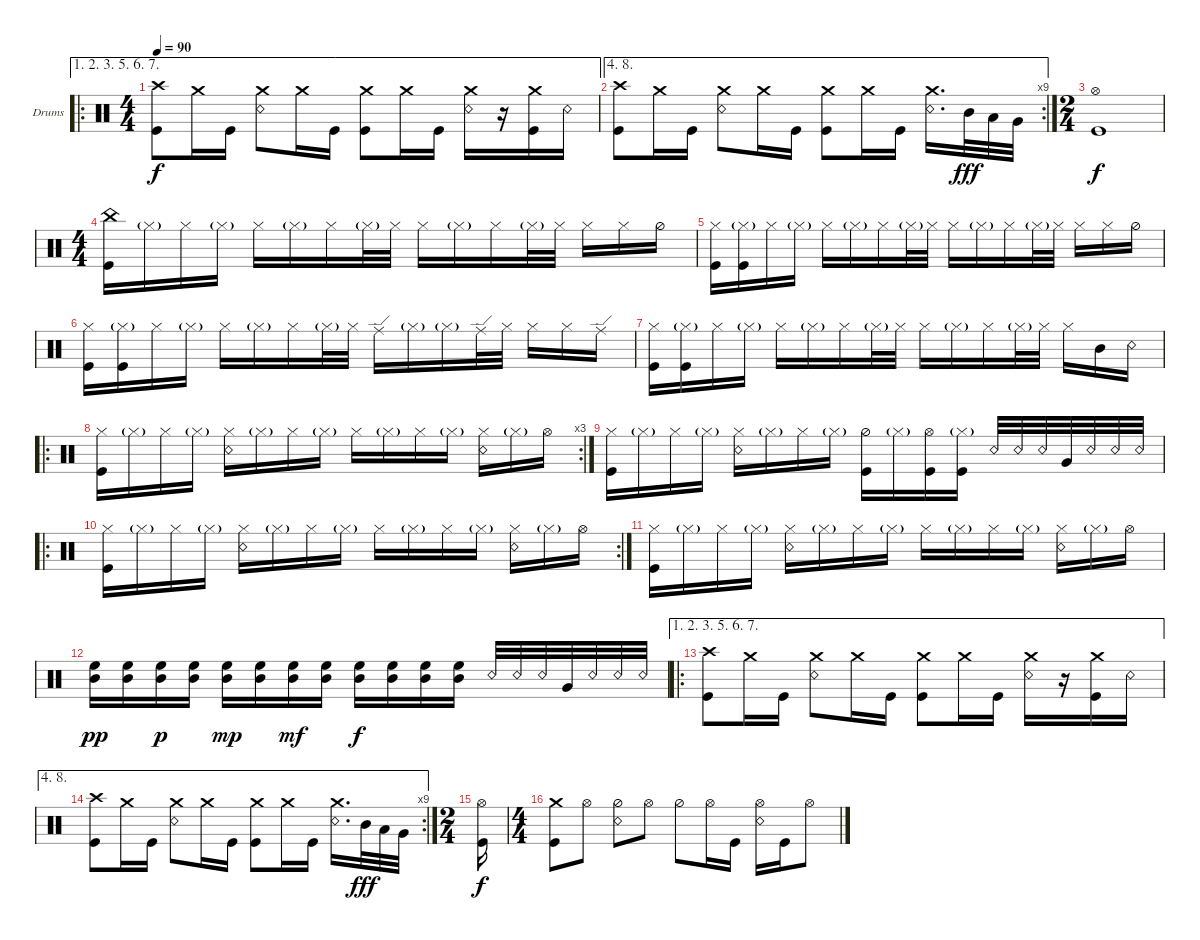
\bracketExtendMode groupsimilarinstruments
\firstSystemTrackNameOrientation horizontal
\otherSystemsTrackNameOrientation horizontal
\track ("Drumkit" "Drums") {instrument percussion}
\staff {score}
\articulation defaults
\ae (1 2 3 5 6 7)
\ro
\ts (4 4)
\tempo 90
\clef neutral
\scale
0.320513
\ks c
("Kick (hit)" "Crash high (hit)").8{dy f} "Crash medium (hit)".16 "Kick (hit)".16 ("Crash medium (hit)" "Snare (rim shot)").8 "Crash medium (hit)".16 "Kick (hit)".16 ("Kick (hit)" "Crash medium (hit)").8 "Crash medium (hit)".16 "Kick (hit)".16 ("Snare (rim shot)" "Crash medium (hit)").16 r.16 ("Crash medium (hit)" "Kick (hit)").16 "Snare (rim shot)".16 |
\ae (4 8)
\rc 9
("Kick (hit)" "Crash high (hit)").8 "Crash medium (hit)".16 "Kick (hit)".16 ("Crash medium (hit)" "Snare (rim shot)").8 "Crash medium (hit)".16 "Kick (hit)".16 ("Kick (hit)" "Crash medium (hit)").8 "Crash medium (hit)".16 "Kick (hit)".16 ("Snare (rim shot)" "Crash medium (hit)").16{d} "Mid Tom (hit)".32{dy fff} "Low Tom (hit)".32 "Very Low Tom (hit)".32 |
\ts (2 4)
\scale
0.435897 ("Kick (hit)" "Hi-Hat (open)").1{dy f} |
\ts (4 4)
\scale
0.472222 ("China (hit)" "Kick (hit)").16 "Hi-Hat (closed)"{g}.16 "Hi-Hat (closed)".16 "Hi-Hat (closed)"{g}.16 "Hi-Hat (closed)".16 "Hi-Hat (closed)"{g}.16 "Hi-Hat (closed)".16 "Hi-Hat (closed)"{g}.32 "Hi-Hat (closed)".32 "Hi-Hat (closed)".16 "Hi-Hat (closed)"{g}.16 "Hi-Hat (closed)".16 "Hi-Hat (closed)"{g}.32 "Hi-Hat (closed)".32 "Hi-Hat (closed)".16 "Hi-Hat (closed)".16 "Hi-Hat (half)".16 |
\scale
0.263889 ("Kick (hit)" "Hi-Hat (closed)").16 ("Hi-Hat (closed)"{g} "Kick (hit)").16 "Hi-Hat (closed)".16 "Hi-Hat (closed)"{g}.16 "Hi-Hat (closed)".16 "Hi-Hat (closed)"{g}.16 "Hi-Hat (closed)".16 "Hi-Hat (closed)"{g}.32 "Hi-Hat (closed)".32 "Hi-Hat (closed)".16 "Hi-Hat (closed)"{g}.16 "Hi-Hat (closed)".16 "Hi-Hat (closed)"{g}.32 "Hi-Hat (closed)".32 "Hi-Hat (closed)".16 "Hi-Hat (closed)".16 "Hi-Hat (half)".16 |
\scale
0.263889 ("Kick (hit)" "Hi-Hat (closed)").16 ("Hi-Hat (closed)"{g} "Kick (hit)").16 "Hi-Hat (closed)".16 "Hi-Hat (closed)"{g}.16 "Hi-Hat (closed)".16 "Hi-Hat (closed)"{g}.16 "Hi-Hat (closed)".16 "Hi-Hat (closed)"{g}.32 "Hi-Hat (closed)".32 "Ride (edge)".16 "Hi-Hat (closed)"{g}.16 "Hi-Hat (closed)"{g}.16 "Ride (edge)".32 "Hi-Hat (closed)".32 "Hi-Hat (closed)".16 "Hi-Hat (closed)".16 "Ride (edge)".16 |
\scale
0.301587 ("Kick (hit)" "Hi-Hat (closed)").16 ("Hi-Hat (closed)"{g} "Kick (hit)").16 "Hi-Hat (closed)".16 "Hi-Hat (closed)"{g}.16 "Hi-Hat (closed)".16 "Hi-Hat (closed)"{g}.16 "Hi-Hat (closed)".16 "Hi-Hat (closed)"{g}.32 "Hi-Hat (closed)".32 "Hi-Hat (closed)".16 "Hi-Hat (closed)"{g}.16 "Hi-Hat (closed)".16 "Hi-Hat (closed)"{g}.32 "Hi-Hat (closed)".32 "Hi-Hat (closed)".16 "Mid Tom (hit)".16 "Snare (rim shot)".16 |
\ro
\rc 3
\scale
0.396825 ("Kick (hit)" "Hi-Hat (closed)").16 "Hi-Hat (closed)"{g}.16 "Hi-Hat (closed)".16 "Hi-Hat (closed)"{g}.16 ("Hi-Hat (closed)" "Snare (rim shot)").16 "Hi-Hat (closed)"{g}.16 "Hi-Hat (closed)".16 "Hi-Hat (closed)"{g}.16 "Hi-Hat (closed)".16 "Hi-Hat (closed)"{g}.16 "Hi-Hat (closed)".16 "Hi-Hat (closed)"{g}.16 ("Hi-Hat (closed)" "Snare (rim shot)").16 "Hi-Hat (closed)"{g}.16 "Hi-Hat (open)".16 |
("Kick (hit)" "Hi-Hat (closed)").16 "Hi-Hat (closed)"{g}.16 "Hi-Hat (closed)".16 "Hi-Hat (closed)"{g}.16 ("Hi-Hat (closed)" "Snare (rim shot)").16 "Hi-Hat (closed)"{g}.16 "Hi-Hat (closed)".16 "Hi-Hat (closed)"{g}.16 ("Kick (hit)" "Hi-Hat (half)").16 "Hi-Hat (closed)"{g}.16 ("Hi-Hat (open)" "Kick (hit)").16 ("Hi-Hat (closed)"{g} "Kick (hit)").16 "Snare (rim shot)".32 "Snare (rim shot)".32 "Snare (rim shot)".32 "Very Low Tom (hit)".32 "Snare (rim shot)".32 "Snare (rim shot)".32 "Snare (rim shot)".32 |
\ro
\rc 2
\scale
0.301587 ("Kick (hit)" "Hi-Hat (closed)").16 "Hi-Hat (closed)"{g}.16 "Hi-Hat (closed)".16 "Hi-Hat (closed)"{g}.16 ("Hi-Hat (closed)" "Snare (rim shot)").16 "Hi-Hat (closed)"{g}.16 "Hi-Hat (closed)".16 "Hi-Hat (closed)"{g}.16 "Hi-Hat (closed)".16 "Hi-Hat (closed)"{g}.16 "Hi-Hat (closed)".16 "Hi-Hat (closed)"{g}.16 ("Hi-Hat (closed)" "Snare (rim shot)").16 "Hi-Hat (closed)"{g}.16 "Hi-Hat (open)".16 |
("Kick (hit)" "Hi-Hat (closed)").16 "Hi-Hat (closed)"{g}.16 "Hi-Hat (closed)".16 "Hi-Hat (closed)"{g}.16 ("Hi-Hat (closed)" "Snare (rim shot)").16 "Hi-Hat (closed)"{g}.16 "Hi-Hat (closed)".16 "Hi-Hat (closed)"{g}.16 "Hi-Hat (closed)".16 "Hi-Hat (closed)"{g}.16 "Hi-Hat (closed)".16 "Hi-Hat (closed)"{g}.16 ("Hi-Hat (closed)" "Snare (rim shot)").16 "Hi-Hat (closed)"{g}.16 "Hi-Hat (open)".16 |
\scale
0.24359 ("Mid Tom (hit)" "High Floor Tom (hit)").16{dy pp} ("Mid Tom (hit)" "High Floor Tom (hit)").16 ("Mid Tom (hit)" "High Floor Tom (hit)").16{dy p} ("Mid Tom (hit)" "High Floor Tom (hit)").16 ("Mid Tom (hit)" "High Floor Tom (hit)").16{dy mp} ("Mid Tom (hit)" "High Floor Tom (hit)").16 ("Mid Tom (hit)" "High Floor Tom (hit)").16{dy mf} ("Mid Tom (hit)" "High Floor Tom (hit)").16 ("Mid Tom (hit)" "High Floor Tom (hit)").16{dy f} ("Mid Tom (hit)" "High Floor Tom (hit)").16 ("Mid Tom (hit)" "High Floor Tom (hit)").16 ("Mid Tom (hit)" "High Floor Tom (hit)").16 "Snare (rim shot)".32 "Snare (rim shot)".32 "Snare (rim shot)".32 "Very Low Tom (hit)".32 "Snare (rim shot)".32 "Snare (rim shot)".32 "Snare (rim shot)".32 |
\ae (1 2 3 5 6 7)
\ro
\scale
0.320513 ("Kick (hit)" "Crash high (hit)").8 "Crash medium (hit)".16 "Kick (hit)".16 ("Crash medium (hit)" "Snare (rim shot)").8 "Crash medium (hit)".16 "Kick (hit)".16 ("Kick (hit)" "Crash medium (hit)").8 "Crash medium (hit)".16 "Kick (hit)".16 ("Snare (rim shot)" "Crash medium (hit)").16 r.16 ("Crash medium (hit)" "Kick (hit)").16 "Snare (rim shot)".16 |
\ae (4 8)
\rc 9
("Kick (hit)" "Crash high (hit)").8 "Crash medium (hit)".16 "Kick (hit)".16 ("Crash medium (hit)" "Snare (rim shot)").8 "Crash medium (hit)".16 "Kick (hit)".16 ("Kick (hit)" "Crash medium (hit)").8 "Crash medium (hit)".16 "Kick (hit)".16 ("Snare (rim shot)" "Crash medium (hit)").16{d} "Mid Tom (hit)".32{dy fff} "Low Tom (hit)".32 "Very Low Tom (hit)".32 |
\ts (2 4)
\scale
0.435897 ("Kick (hit)" "Hi-Hat (open)").16{dy f} |
\ts (4 4)
\scale
0.435897 ("Kick (hit)" "Crash medium (hit)").8 "Hi-Hat (open)".8 ("Hi-Hat (half)" "Snare (rim shot)").8 "Hi-Hat (open)".8 "Hi-Hat (half)".8 "Hi-Hat (open)".16 "Kick (hit)".16 ("Hi-Hat (open)" "Snare (rim shot)").16 "Kick (hit)".16 "Hi-Hat (open)".8
